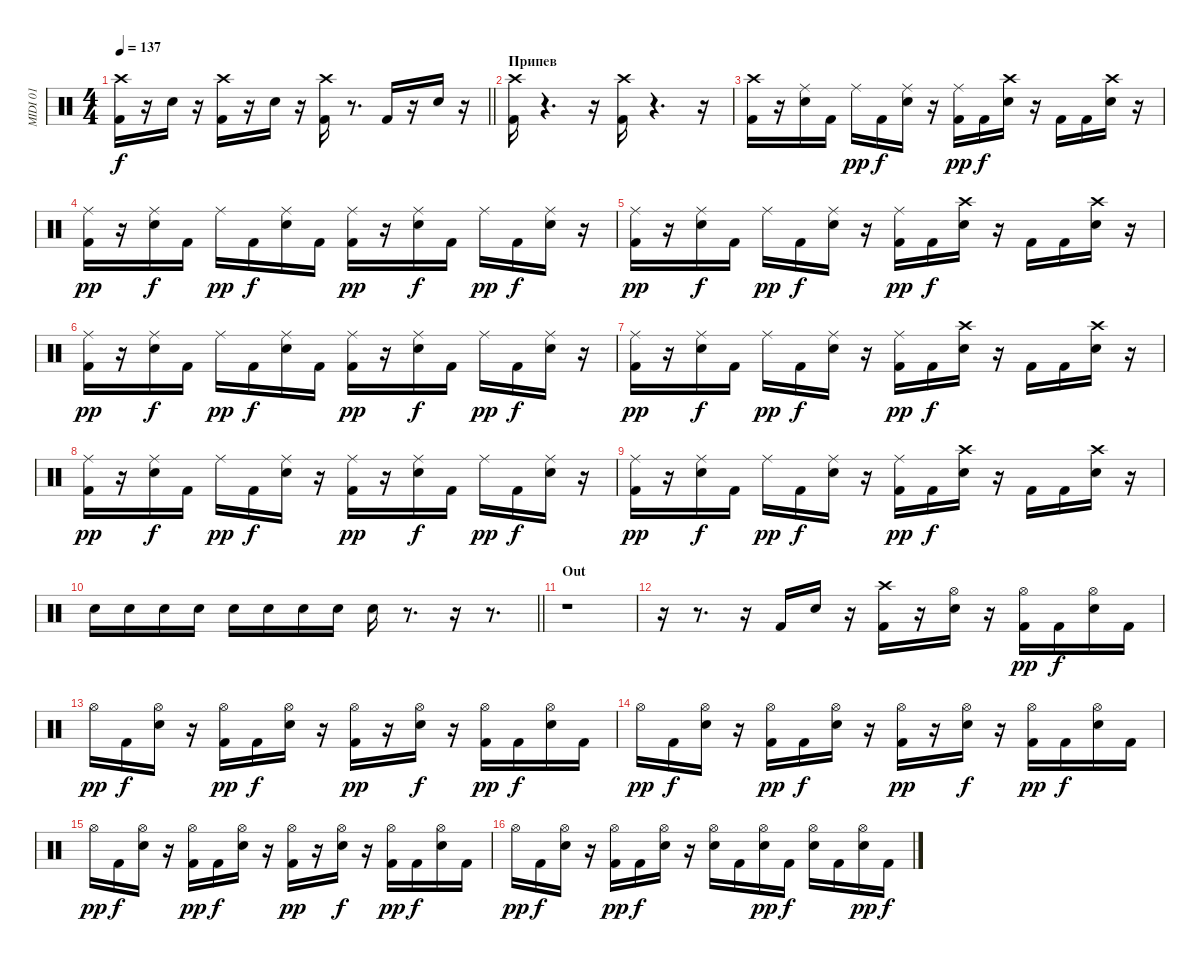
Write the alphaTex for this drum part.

\track ("MIDI 01" "MIDI 01") {instrument percussion}
\staff {score}
\articulation defaults
\ts (4 4)
\section ("" "")
\tempo 137
\clef neutral
\barLineRight lightlight
\ks c
("Kick (hit) 2" "Crash high (hit)").16{dy f} r.16 "Snare (hit) 2".16 r.16 ("Kick (hit) 2" "Crash high (hit)").16 r.16 "Snare (hit) 2".16 r.16 ("Kick (hit) 2" "Crash high (hit)").16 r.8{d} "Kick (hit) 2".16 r.16 "Snare (hit) 2".16 r.16 |
\section ("" "Припев")
("Kick (hit) 2" "Crash high (hit)").16 r.4{d} r.16 ("Kick (hit) 2" "Crash high (hit)").16 r.4{d} r.16 |
("Kick (hit) 2" "Crash high (hit)").16 r.16 ("Snare (hit) 2" "Ride (middle)").16 "Kick (hit) 2".16 "Ride (middle)".16{dy pp} "Kick (hit) 2".16{dy f} ("Snare (hit) 2" "Ride (middle)").16 r.16 ("Kick (hit) 2" "Ride (middle)").16{dy pp} "Kick (hit) 2".16{dy f} ("Snare (hit) 2" "Crash high (hit)").16 r.16 "Kick (hit) 2".16 "Kick (hit) 2".16 ("Snare (hit) 2" "Crash high (hit)").16 r.16 |
("Kick (hit) 2" "Ride (middle)").16{dy pp} r.16 ("Snare (hit) 2" "Ride (middle)").16{dy f} "Kick (hit) 2".16 "Ride (middle)".16{dy pp} "Kick (hit) 2".16{dy f} ("Snare (hit) 2" "Ride (middle)").16 "Kick (hit) 2".16 ("Kick (hit) 2" "Ride (middle)").16{dy pp} r.16 ("Snare (hit) 2" "Ride (middle)").16{dy f} "Kick (hit) 2".16 "Ride (middle)".16{dy pp} "Kick (hit) 2".16{dy f} ("Snare (hit) 2" "Ride (middle)").16 r.16 |
("Kick (hit) 2" "Ride (middle)").16{dy pp} r.16 ("Snare (hit) 2" "Ride (middle)").16{dy f} "Kick (hit) 2".16 "Ride (middle)".16{dy pp} "Kick (hit) 2".16{dy f} ("Snare (hit) 2" "Ride (middle)").16 r.16 ("Kick (hit) 2" "Ride (middle)").16{dy pp} "Kick (hit) 2".16{dy f} ("Crash high (hit)" "Snare (hit) 2").16 r.16 "Kick (hit) 2".16 "Kick (hit) 2".16 ("Crash high (hit)" "Snare (hit) 2").16 r.16 |
("Kick (hit) 2" "Ride (middle)").16{dy pp} r.16 ("Snare (hit) 2" "Ride (middle)").16{dy f} "Kick (hit) 2".16 "Ride (middle)".16{dy pp} "Kick (hit) 2".16{dy f} ("Snare (hit) 2" "Ride (middle)").16 "Kick (hit) 2".16 ("Kick (hit) 2" "Ride (middle)").16{dy pp} r.16 ("Snare (hit) 2" "Ride (middle)").16{dy f} "Kick (hit) 2".16 "Ride (middle)".16{dy pp} "Kick (hit) 2".16{dy f} ("Snare (hit) 2" "Ride (middle)").16 r.16 |
("Kick (hit) 2" "Ride (middle)").16{dy pp} r.16 ("Snare (hit) 2" "Ride (middle)").16{dy f} "Kick (hit) 2".16 "Ride (middle)".16{dy pp} "Kick (hit) 2".16{dy f} ("Snare (hit) 2" "Ride (middle)").16 r.16 ("Kick (hit) 2" "Ride (middle)").16{dy pp} "Kick (hit) 2".16{dy f} ("Crash high (hit)" "Snare (hit) 2").16 r.16 "Kick (hit) 2".16 "Kick (hit) 2".16 ("Crash high (hit)" "Snare (hit) 2").16 r.16 |
("Kick (hit) 2" "Ride (middle)").16{dy pp} r.16 ("Snare (hit) 2" "Ride (middle)").16{dy f} "Kick (hit) 2".16 "Ride (middle)".16{dy pp} "Kick (hit) 2".16{dy f} ("Snare (hit) 2" "Ride (middle)").16 r.16 ("Ride (middle)" "Kick (hit) 2").16{dy pp} r.16 ("Ride (middle)" "Snare (hit) 2").16{dy f} "Kick (hit) 2".16 "Ride (middle)".16{dy pp} "Kick (hit) 2".16{dy f} ("Ride (middle)" "Snare (hit) 2").16 r.16 |
("Kick (hit) 2" "Ride (middle)").16{dy pp} r.16 ("Snare (hit) 2" "Ride (middle)").16{dy f} "Kick (hit) 2".16 "Ride (middle)".16{dy pp} "Kick (hit) 2".16{dy f} ("Snare (hit) 2" "Ride (middle)").16 r.16 ("Kick (hit) 2" "Ride (middle)").16{dy pp} "Kick (hit) 2".16{dy f} ("Crash high (hit)" "Snare (hit) 2").16 r.16 "Kick (hit) 2".16 "Kick (hit) 2".16 ("Crash high (hit)" "Snare (hit) 2").16 r.16 |
\barLineRight lightlight "Snare (hit) 2".16 "Snare (hit) 2".16 "Snare (hit) 2".16 "Snare (hit) 2".16 "Snare (hit) 2".16 "Snare (hit) 2".16 "Snare (hit) 2".16 "Snare (hit) 2".16 "Snare (hit) 2".16
r.8{d} r.16 r.8{d} |
\section ("" "Out")
r.1 |
r.16 r.8{d} r.16 "Kick (hit) 2".16 "Snare (hit) 2".16 r.16 ("Kick (hit) 2" "Crash high (hit)").16 r.16 ("Snare (hit) 2" "Hi-Hat (open)").16 r.16 ("Kick (hit) 2" "Hi-Hat (open)").16{dy pp} "Kick (hit) 2".16{dy f} ("Snare (hit) 2" "Hi-Hat (open)").16 "Kick (hit) 2".16 |
"Hi-Hat (open)".16{dy pp} "Kick (hit) 2".16{dy f} ("Snare (hit) 2" "Hi-Hat (open)").16 r.16 ("Kick (hit) 2" "Hi-Hat (open)").16{dy pp} "Kick (hit) 2".16{dy f} ("Snare (hit) 2" "Hi-Hat (open)").16 r.16 ("Kick (hit) 2" "Hi-Hat (open)").16{dy pp} r.16 ("Snare (hit) 2" "Hi-Hat (open)").16{dy f} r.16 ("Kick (hit) 2" "Hi-Hat (open)").16{dy pp} "Kick (hit) 2".16{dy f} ("Snare (hit) 2" "Hi-Hat (open)").16 "Kick (hit) 2".16 |
"Hi-Hat (open)".16{dy pp} "Kick (hit) 2".16{dy f} ("Snare (hit) 2" "Hi-Hat (open)").16 r.16 ("Kick (hit) 2" "Hi-Hat (open)").16{dy pp} "Kick (hit) 2".16{dy f} ("Snare (hit) 2" "Hi-Hat (open)").16 r.16 ("Kick (hit) 2" "Hi-Hat (open)").16{dy pp} r.16 ("Snare (hit) 2" "Hi-Hat (open)").16{dy f} r.16 ("Kick (hit) 2" "Hi-Hat (open)").16{dy pp} "Kick (hit) 2".16{dy f} ("Snare (hit) 2" "Hi-Hat (open)").16 "Kick (hit) 2".16 |
"Hi-Hat (open)".16{dy pp} "Kick (hit) 2".16{dy f} ("Snare (hit) 2" "Hi-Hat (open)").16 r.16 ("Kick (hit) 2" "Hi-Hat (open)").16{dy pp} "Kick (hit) 2".16{dy f} ("Snare (hit) 2" "Hi-Hat (open)").16 r.16 ("Kick (hit) 2" "Hi-Hat (open)").16{dy pp} r.16 ("Snare (hit) 2" "Hi-Hat (open)").16{dy f} r.16 ("Kick (hit) 2" "Hi-Hat (open)").16{dy pp} "Kick (hit) 2".16{dy f} ("Snare (hit) 2" "Hi-Hat (open)").16 "Kick (hit) 2".16 |
"Hi-Hat (open)".16{dy pp} "Kick (hit) 2".16{dy f} ("Snare (hit) 2" "Hi-Hat (open)").16 r.16 ("Kick (hit) 2" "Hi-Hat (open)").16{dy pp} "Kick (hit) 2".16{dy f} ("Snare (hit) 2" "Hi-Hat (open)").16 r.16 ("Hi-Hat (open)" "Snare (hit) 2").16 "Kick (hit) 2".16 ("Hi-Hat (open)" "Snare (hit) 2").16{dy pp} "Kick (hit) 2".16{dy f} ("Hi-Hat (open)" "Snare (hit) 2").16 "Kick (hit) 2".16 ("Hi-Hat (open)" "Snare (hit) 2").16{dy pp} "Kick (hit) 2".16{dy f}
